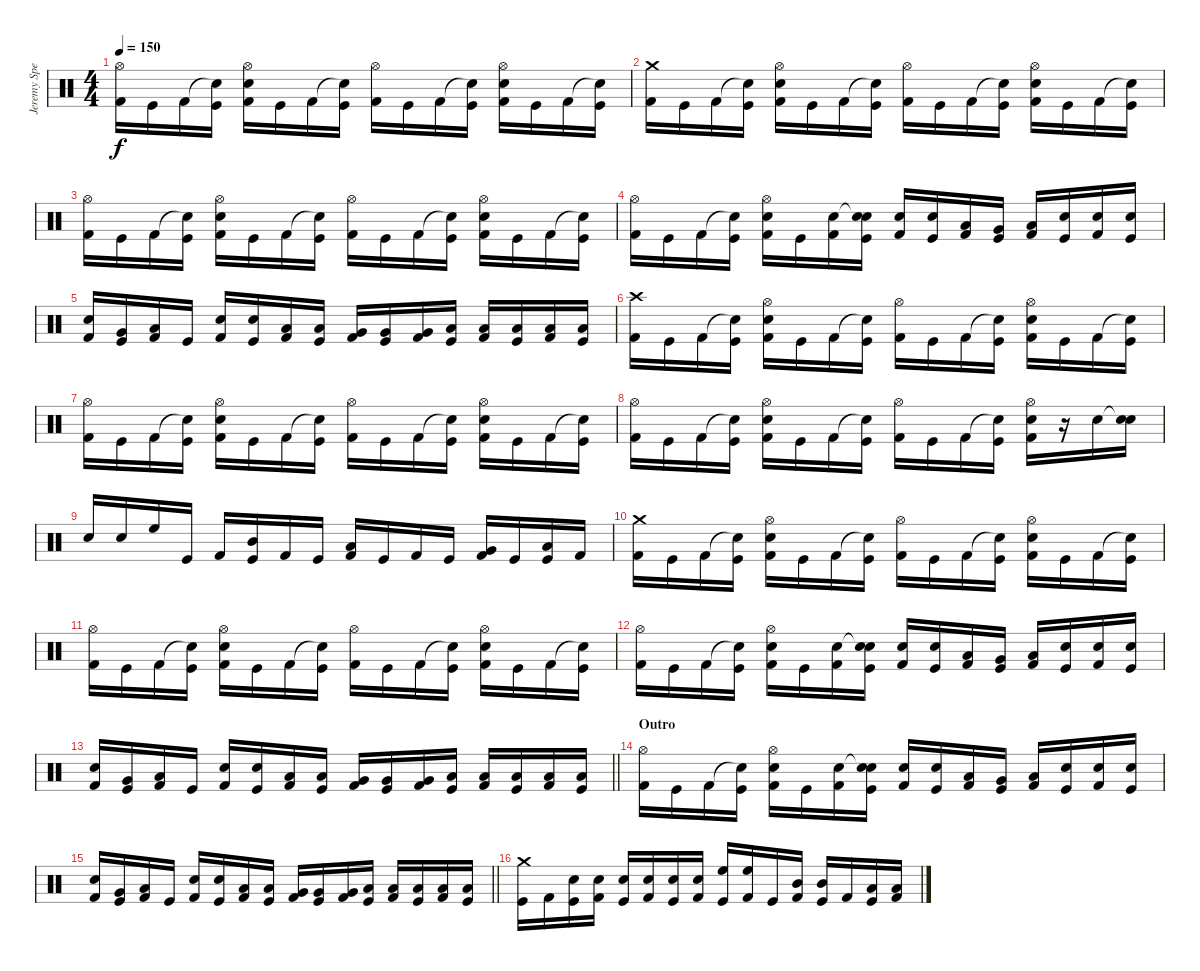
\track ("Jeremy Spencer" "Jeremy Spe") {instrument percussion}
\staff {score}
\articulation defaults
\ts (4 4)
\tempo 150
\clef neutral
\ks c
("Hi-Hat (open)" "Kick (hit) 2").16{dy f} "Kick (hit)".16 "Kick (hit) 2".16 ("Snare (hit)"{t} "Kick (hit)").16 ("Hi-Hat (open)" "Snare (hit) 2" "Kick (hit) 2").16 "Kick (hit)".16 "Kick (hit) 2".16 ("Snare (hit)"{t} "Kick (hit)").16 ("Hi-Hat (open)" "Kick (hit) 2").16 "Kick (hit)".16 "Kick (hit) 2".16 ("Snare (hit)"{t} "Kick (hit)").16 ("Hi-Hat (open)" "Snare (hit) 2" "Kick (hit) 2").16 "Kick (hit)".16 "Kick (hit) 2".16 ("Snare (hit)"{t} "Kick (hit)").16 |
("Crash medium (hit)" "Kick (hit) 2").16 "Kick (hit)".16 "Kick (hit) 2".16 ("Snare (hit)"{t} "Kick (hit)").16 ("Hi-Hat (open)" "Snare (hit) 2" "Kick (hit) 2").16 "Kick (hit)".16 "Kick (hit) 2".16 ("Snare (hit)"{t} "Kick (hit)").16 ("Hi-Hat (open)" "Kick (hit) 2").16 "Kick (hit)".16 "Kick (hit) 2".16 ("Snare (hit)"{t} "Kick (hit)").16 ("Hi-Hat (open)" "Snare (hit) 2" "Kick (hit) 2").16 "Kick (hit)".16 "Kick (hit) 2".16 ("Snare (hit)"{t} "Kick (hit)").16 |
("Hi-Hat (open)" "Kick (hit) 2").16 "Kick (hit)".16 "Kick (hit) 2".16 ("Snare (hit)"{t} "Kick (hit)").16 ("Hi-Hat (open)" "Snare (hit) 2" "Kick (hit) 2").16 "Kick (hit)".16 "Kick (hit) 2".16 ("Snare (hit)"{t} "Kick (hit)").16 ("Hi-Hat (open)" "Kick (hit) 2").16 "Kick (hit)".16 "Kick (hit) 2".16 ("Snare (hit)"{t} "Kick (hit)").16 ("Hi-Hat (open)" "Snare (hit) 2" "Kick (hit) 2").16 "Kick (hit)".16 "Kick (hit) 2".16 ("Snare (hit)"{t} "Kick (hit)").16 |
("Hi-Hat (open)" "Kick (hit) 2").16 "Kick (hit)".16 "Kick (hit) 2".16 ("Snare (hit)"{t} "Kick (hit)").16 ("Hi-Hat (open)" "Snare (hit) 2" "Kick (hit) 2").16 "Kick (hit)".16 ("Snare (hit) 2" "Kick (hit) 2").16 ("Snare (hit)"{t} "Snare (hit) 2" "Kick (hit)").16 ("Snare (hit) 2" "Kick (hit) 2").16 ("Snare (hit) 2" "Kick (hit)").16 ("Low Tom (hit)" "Kick (hit) 2").16 ("Very Low Tom (hit)" "Kick (hit)").16 ("Low Floor Tom (hit)" "Kick (hit) 2").16 ("Snare (hit) 2" "Kick (hit)").16 ("Snare (hit) 2" "Kick (hit) 2").16 ("Snare (hit) 2" "Kick (hit)").16 |
("Snare (hit) 2" "Kick (hit) 2").16 ("Very Low Tom (hit)" "Kick (hit)").16 ("Low Floor Tom (hit)" "Kick (hit) 2").16 "Kick (hit)".16 ("Snare (hit) 2" "Kick (hit) 2").16 ("Snare (hit) 2" "Kick (hit)").16 ("Low Tom (hit)" "Kick (hit) 2").16 ("Low Tom (hit)" "Kick (hit)").16 ("Very Low Tom (hit)" "Kick (hit) 2").16 ("Very Low Tom (hit)" "Kick (hit)").16 ("Very Low Tom (hit)" "Kick (hit) 2").16 ("Low Floor Tom (hit)" "Kick (hit)").16 ("Low Floor Tom (hit)" "Kick (hit) 2").16 ("Low Floor Tom (hit)" "Kick (hit)").16 ("Low Floor Tom (hit)" "Kick (hit) 2").16 ("Low Floor Tom (hit)" "Kick (hit)").16 |
("Crash high (hit)" "Kick (hit) 2").16 "Kick (hit)".16 "Kick (hit) 2".16 ("Snare (hit)"{t} "Kick (hit)").16 ("Hi-Hat (open)" "Snare (hit) 2" "Kick (hit) 2").16 "Kick (hit)".16 "Kick (hit) 2".16 ("Snare (hit)"{t} "Kick (hit)").16 ("Hi-Hat (open)" "Kick (hit) 2").16 "Kick (hit)".16 "Kick (hit) 2".16 ("Snare (hit)"{t} "Kick (hit)").16 ("Hi-Hat (open)" "Snare (hit) 2" "Kick (hit) 2").16 "Kick (hit)".16 "Kick (hit) 2".16 ("Snare (hit)"{t} "Kick (hit)").16 |
("Hi-Hat (open)" "Kick (hit) 2").16 "Kick (hit)".16 "Kick (hit) 2".16 ("Snare (hit)"{t} "Kick (hit)").16 ("Hi-Hat (open)" "Snare (hit) 2" "Kick (hit) 2").16 "Kick (hit)".16 "Kick (hit) 2".16 ("Snare (hit)"{t} "Kick (hit)").16 ("Hi-Hat (open)" "Kick (hit) 2").16 "Kick (hit)".16 "Kick (hit) 2".16 ("Snare (hit)"{t} "Kick (hit)").16 ("Hi-Hat (open)" "Snare (hit) 2" "Kick (hit) 2").16 "Kick (hit)".16 "Kick (hit) 2".16 ("Snare (hit)"{t} "Kick (hit)").16 |
("Hi-Hat (open)" "Kick (hit) 2").16 "Kick (hit)".16 "Kick (hit) 2".16 ("Snare (hit)"{t} "Kick (hit)").16 ("Hi-Hat (open)" "Snare (hit) 2" "Kick (hit) 2").16 "Kick (hit)".16 "Kick (hit) 2".16 ("Snare (hit)"{t} "Kick (hit)").16 ("Hi-Hat (open)" "Kick (hit) 2").16 "Kick (hit)".16 "Kick (hit) 2".16 ("Snare (hit)"{t} "Kick (hit)").16 ("Hi-Hat (open)" "Snare (hit) 2" "Kick (hit) 2").16 r.16 "Snare (hit) 2".16 ("Snare (hit)"{t} "Snare (hit) 2").16 |
"Snare (hit) 2".16 "Snare (hit) 2".16 "High Floor Tom (hit)".16 "Kick (hit)".16 "Kick (hit) 2".16 ("Mid Tom (hit)" "Kick (hit)").16 "Kick (hit) 2".16 "Kick (hit)".16 ("Low Tom (hit)" "Kick (hit) 2").16 "Kick (hit)".16 "Kick (hit) 2".16 "Kick (hit)".16 ("Very Low Tom (hit)" "Kick (hit) 2").16 "Kick (hit)".16 ("Low Floor Tom (hit)" "Kick (hit)").16 "Kick (hit) 2".16 |
("Crash medium (hit)" "Kick (hit) 2").16 "Kick (hit)".16 "Kick (hit) 2".16 ("Snare (hit)"{t} "Kick (hit)").16 ("Hi-Hat (open)" "Snare (hit) 2" "Kick (hit) 2").16 "Kick (hit)".16 "Kick (hit) 2".16 ("Snare (hit)"{t} "Kick (hit)").16 ("Hi-Hat (open)" "Kick (hit) 2").16 "Kick (hit)".16 "Kick (hit) 2".16 ("Snare (hit)"{t} "Kick (hit)").16 ("Hi-Hat (open)" "Snare (hit) 2" "Kick (hit) 2").16 "Kick (hit)".16 "Kick (hit) 2".16 ("Snare (hit)"{t} "Kick (hit)").16 |
("Hi-Hat (open)" "Kick (hit) 2").16 "Kick (hit)".16 "Kick (hit) 2".16 ("Snare (hit)"{t} "Kick (hit)").16 ("Hi-Hat (open)" "Snare (hit) 2" "Kick (hit) 2").16 "Kick (hit)".16 "Kick (hit) 2".16 ("Snare (hit)"{t} "Kick (hit)").16 ("Hi-Hat (open)" "Kick (hit) 2").16 "Kick (hit)".16 "Kick (hit) 2".16 ("Snare (hit)"{t} "Kick (hit)").16 ("Hi-Hat (open)" "Snare (hit) 2" "Kick (hit) 2").16 "Kick (hit)".16 "Kick (hit) 2".16 ("Snare (hit)"{t} "Kick (hit)").16 |
("Hi-Hat (open)" "Kick (hit) 2").16 "Kick (hit)".16 "Kick (hit) 2".16 ("Snare (hit)"{t} "Kick (hit)").16 ("Hi-Hat (open)" "Snare (hit) 2" "Kick (hit) 2").16 "Kick (hit)".16 ("Snare (hit) 2" "Kick (hit) 2").16 ("Snare (hit)"{t} "Snare (hit) 2" "Kick (hit)").16 ("Snare (hit) 2" "Kick (hit) 2").16 ("Snare (hit) 2" "Kick (hit)").16 ("Low Tom (hit)" "Kick (hit) 2").16 ("Very Low Tom (hit)" "Kick (hit)").16 ("Low Floor Tom (hit)" "Kick (hit) 2").16 ("Snare (hit) 2" "Kick (hit)").16 ("Snare (hit) 2" "Kick (hit) 2").16 ("Snare (hit) 2" "Kick (hit)").16 |
\barLineRight lightlight
("Snare (hit) 2" "Kick (hit) 2").16 ("Very Low Tom (hit)" "Kick (hit)").16 ("Low Floor Tom (hit)" "Kick (hit) 2").16 "Kick (hit)".16 ("Snare (hit) 2" "Kick (hit) 2").16 ("Snare (hit) 2" "Kick (hit)").16 ("Low Tom (hit)" "Kick (hit) 2").16 ("Low Tom (hit)" "Kick (hit)").16 ("Very Low Tom (hit)" "Kick (hit) 2").16 ("Very Low Tom (hit)" "Kick (hit)").16 ("Very Low Tom (hit)" "Kick (hit) 2").16 ("Low Floor Tom (hit)" "Kick (hit)").16 ("Low Floor Tom (hit)" "Kick (hit) 2").16 ("Low Floor Tom (hit)" "Kick (hit)").16 ("Low Floor Tom (hit)" "Kick (hit) 2").16 ("Low Floor Tom (hit)" "Kick (hit)").16 |
\section ("" "Outro")
("Hi-Hat (open)" "Kick (hit) 2").16 "Kick (hit)".16 "Kick (hit) 2".16 ("Snare (hit)"{t} "Kick (hit)").16 ("Hi-Hat (open)" "Snare (hit) 2" "Kick (hit) 2").16 "Kick (hit)".16 ("Snare (hit) 2" "Kick (hit) 2").16 ("Snare (hit)"{t} "Snare (hit) 2" "Kick (hit)").16 ("Snare (hit) 2" "Kick (hit) 2").16 ("Snare (hit) 2" "Kick (hit)").16 ("Low Tom (hit)" "Kick (hit) 2").16 ("Very Low Tom (hit)" "Kick (hit)").16 ("Low Floor Tom (hit)" "Kick (hit) 2").16 ("Snare (hit) 2" "Kick (hit)").16 ("Snare (hit) 2" "Kick (hit) 2").16 ("Snare (hit) 2" "Kick (hit)").16 |
\barLineRight lightlight
("Snare (hit) 2" "Kick (hit) 2").16 ("Very Low Tom (hit)" "Kick (hit)").16 ("Low Floor Tom (hit)" "Kick (hit) 2").16 "Kick (hit)".16 ("Snare (hit) 2" "Kick (hit) 2").16 ("Snare (hit) 2" "Kick (hit)").16 ("Low Tom (hit)" "Kick (hit) 2").16 ("Low Tom (hit)" "Kick (hit)").16 ("Very Low Tom (hit)" "Kick (hit) 2").16 ("Very Low Tom (hit)" "Kick (hit)").16 ("Very Low Tom (hit)" "Kick (hit) 2").16 ("Low Floor Tom (hit)" "Kick (hit)").16 ("Low Floor Tom (hit)" "Kick (hit) 2").16 ("Low Floor Tom (hit)" "Kick (hit)").16 ("Low Floor Tom (hit)" "Kick (hit) 2").16 ("Low Floor Tom (hit)" "Kick (hit)").16 |
("Crash medium (hit)" "Kick (hit)").16 "Kick (hit) 2".16 ("Snare (hit) 2" "Kick (hit)").16 ("Snare (hit) 2" "Kick (hit) 2").16 ("Snare (hit) 2" "Kick (hit)").16 ("Snare (hit) 2" "Kick (hit) 2").16 ("Snare (hit) 2" "Kick (hit)").16 ("Snare (hit) 2" "Kick (hit) 2").16 ("High Floor Tom (hit)" "Kick (hit)").16 ("High Floor Tom (hit)" "Kick (hit) 2").16 "Kick (hit)".16 ("Mid Tom (hit)" "Kick (hit) 2").16 ("Mid Tom (hit)" "Kick (hit)").16 "Kick (hit) 2".16 ("Low Tom (hit)" "Kick (hit)").16 ("Low Tom (hit)" "Kick (hit) 2").16
